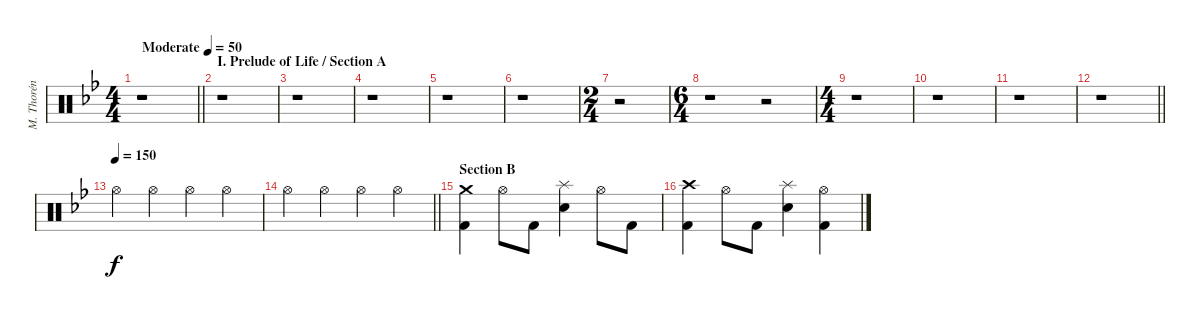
\track ("M. Thorén (Drums)" "M. Thorén ") {instrument percussion}
\staff {score}
\articulation defaults
\ts (4 4)
\tempo (50 "Moderate")
\clef neutral
\barLineRight lightlight
\ks gminor
r.1{dy f} |
\section ("" "I. Prelude of Life / Section A")
r.1 |
r.1 |
r.1 |
r.1 |
r.1 |
\ts (2 4)
r.2 |
\ts (6 4)
r.1 r.2 |
\ts (4 4)
r.1 |
r.1 |
r.1 |
\barLineRight lightlight
r.1 |
\tempo (150)
"Hi-Hat (open)".4 "Hi-Hat (open)".4 "Hi-Hat (open)".4 "Hi-Hat (open)".4 |
\barLineRight lightlight "Hi-Hat (open)".4 "Hi-Hat (open)".4 "Hi-Hat (open)".4 "Hi-Hat (open)".4
|
\section ("" "Section B")
("Crash medium (hit)" "Kick (hit) 2").4 "Hi-Hat (open)".8 "Kick (hit) 2".8 ("Splash (hit)" "Electric Snare (hit)").4 "Hi-Hat (open)".8 "Kick (hit) 2".8 |
("Crash high (hit)" "Kick (hit) 2").4 "Hi-Hat (open)".8 "Kick (hit) 2".8 ("Splash (hit)" "Electric Snare (hit)").4 ("Hi-Hat (open)" "Kick (hit) 2").4
